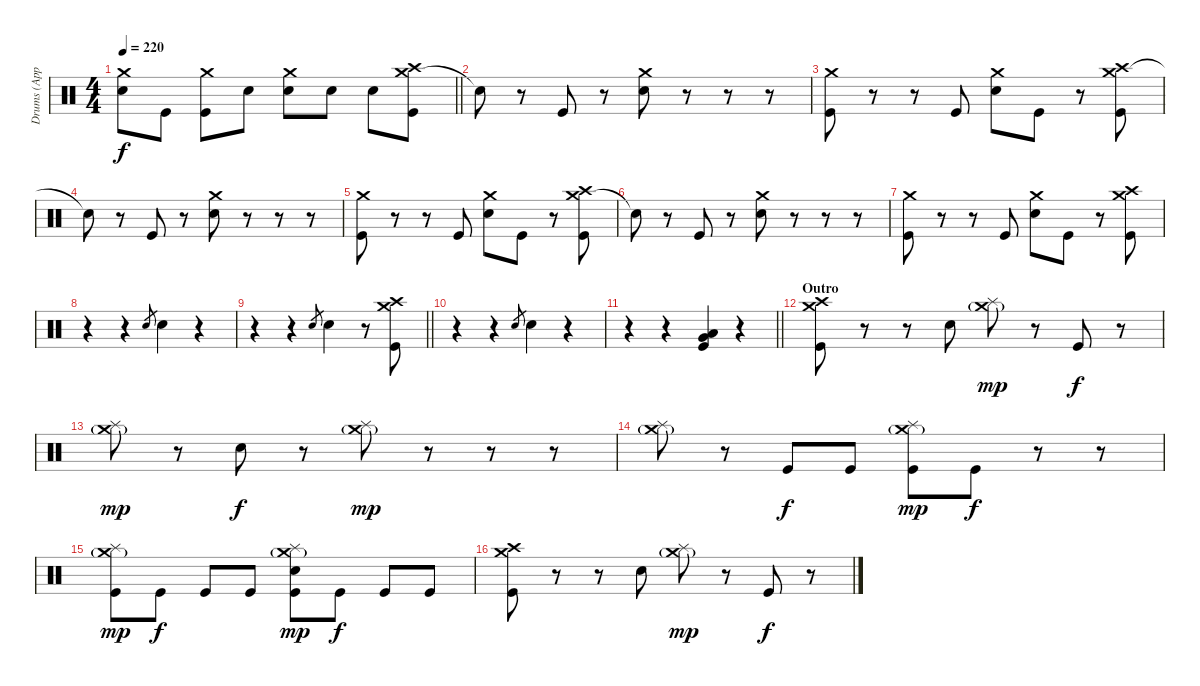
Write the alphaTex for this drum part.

\track ("Drums (Approx.)" "Drums (App") {instrument percussion}
\staff {score}
\articulation defaults
\ts (4 4)
\tempo 220
\clef neutral
\barLineRight lightlight
\ks c
("Crash medium (hit)" "Electric Snare (hit)").8{dy f} "Kick (hit)".8 ("Crash medium (hit)" "Kick (hit)").8 "Electric Snare (hit)".8 ("Crash medium (hit)" "Electric Snare (hit)").8 "Electric Snare (hit)".8 "Electric Snare (hit)".8 ("Crash medium (hit)" "Crash high (hit)" "Kick (hit)").8 |
"Snare (hit)"{t}.8 r.8 "Kick (hit)".8 r.8 ("Crash medium (hit)" "Electric Snare (hit)").8 r.8 r.8 r.8 |
("Crash medium (hit)" "Kick (hit)").8 r.8 r.8 "Kick (hit)".8 ("Crash medium (hit)" "Electric Snare (hit)").8 "Kick (hit)".8 r.8 ("Crash medium (hit)" "Crash high (hit)" "Kick (hit)").8 |
"Snare (hit)"{t}.8 r.8 "Kick (hit)".8 r.8 ("Crash medium (hit)" "Electric Snare (hit)").8 r.8 r.8 r.8 |
("Crash medium (hit)" "Kick (hit)").8 r.8 r.8 "Kick (hit)".8 ("Crash medium (hit)" "Electric Snare (hit)").8 "Kick (hit)".8 r.8 ("Crash medium (hit)" "Crash high (hit)" "Kick (hit)").8 |
"Snare (hit)"{t}.8 r.8 "Kick (hit)".8 r.8 ("Crash medium (hit)" "Electric Snare (hit)").8 r.8 r.8 r.8 |
("Crash medium (hit)" "Kick (hit)").8 r.8 r.8 "Kick (hit)".8 ("Crash medium (hit)" "Electric Snare (hit)").8 "Kick (hit)".8 r.8 ("Crash medium (hit)" "Crash high (hit)" "Kick (hit)").8 |
r.4 r.4 "Electric Snare (hit)".8{gr} "Electric Snare (hit)".4 r.4 |
\barLineRight lightlight
r.4 r.4 "Electric Snare (hit)".8{gr} "Electric Snare (hit)".4 r.8 ("Crash medium (hit)" "Crash high (hit)" "Kick (hit)").8 |
r.4 r.4 "Electric Snare (hit)".8{gr} "Electric Snare (hit)".4 r.4 |
\barLineRight lightlight
r.4 r.4 ("Kick (hit)" "Low Floor Tom (hit)" "Very Low Tom (hit)").4 r.4 |
\section ("" "Outro")
("Crash medium (hit)" "Crash high (hit)" "Kick (hit)").8 r.8 r.8 "Electric Snare (hit)".8 ("Crash medium (hit)"{g} "Splash (hit)").8{dy mp} r.8 "Kick (hit)".8{dy f} r.8 |
("Crash medium (hit)"{g} "Splash (hit)").8{dy mp} r.8 "Electric Snare (hit)".8{dy f} r.8 ("Crash medium (hit)"{g} "Splash (hit)").8{dy mp} r.8 r.8 r.8 |
("Crash medium (hit)"{g} "Splash (hit)").8 r.8 "Kick (hit)".8{dy f} "Kick (hit)".8 ("Crash medium (hit)"{g} "Splash (hit)" "Kick (hit)").8{dy mp} "Kick (hit)".8{dy f} r.8 r.8 |
("Crash medium (hit)"{g} "Splash (hit)" "Kick (hit)").8{dy mp} "Kick (hit)".8{dy f} "Kick (hit)".8 "Kick (hit)".8 ("Crash medium (hit)"{g} "Splash (hit)" "Electric Snare (hit)" "Kick (hit)").8{dy mp} "Kick (hit)".8{dy f} "Kick (hit)".8 "Kick (hit)".8 |
("Crash medium (hit)" "Crash high (hit)" "Kick (hit)").8 r.8 r.8 "Electric Snare (hit)".8 ("Crash medium (hit)"{g} "Splash (hit)").8{dy mp} r.8 "Kick (hit)".8{dy f} r.8
